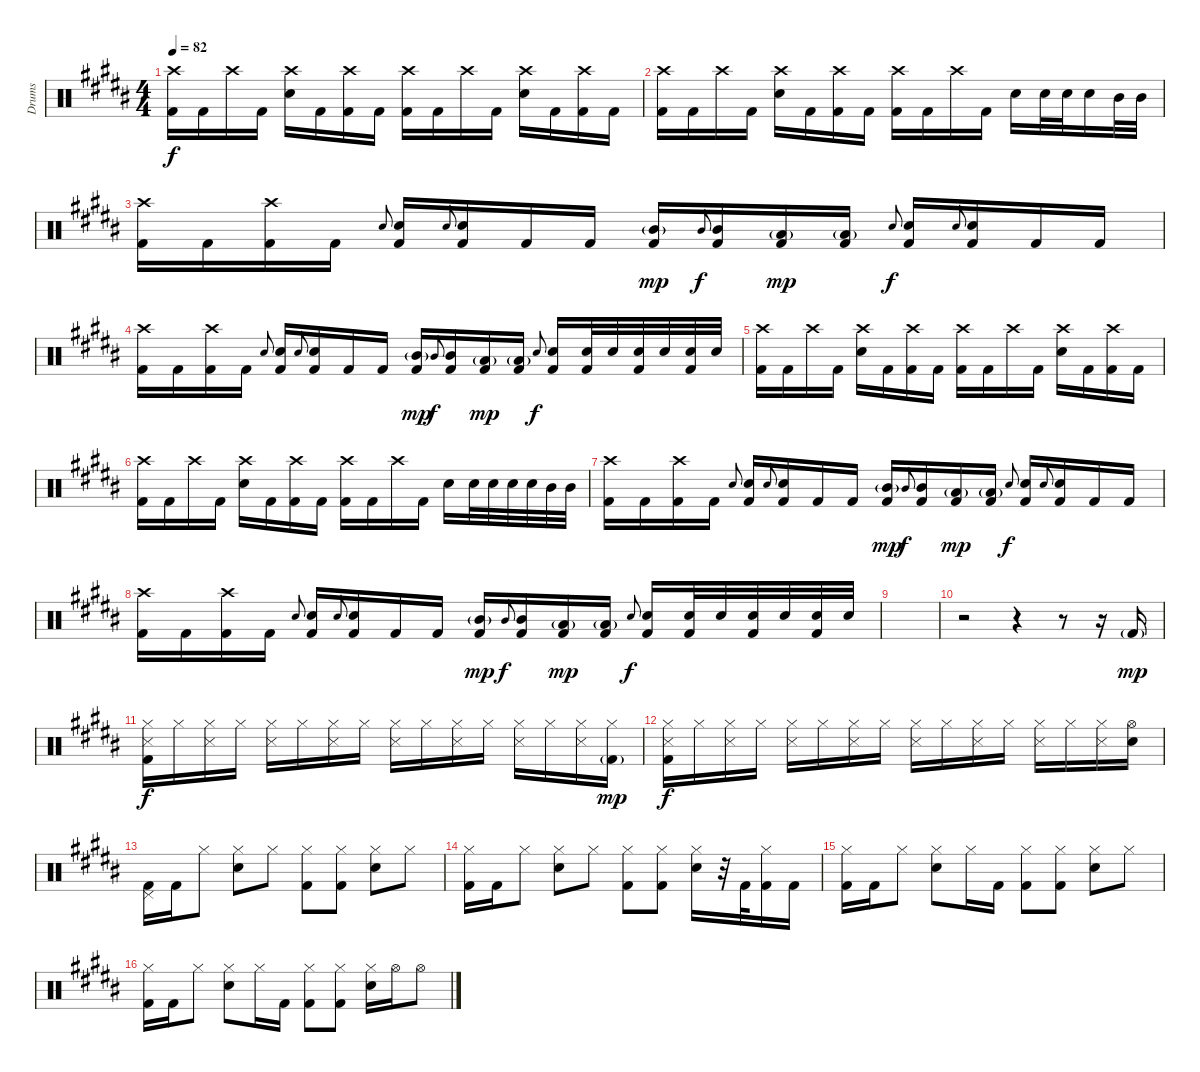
\track ("Drums" "Drums") {instrument percussion}
\staff {score}
\articulation defaults
\ts (4 4)
\tempo 82
\clef neutral
\ks b
("Crash high (hit)" "Kick (hit) 2").16{dy f} "Kick (hit) 2".16 "Crash high (hit)".16 "Kick (hit) 2".16 ("Crash high (hit)" "Electric Snare (hit)").16 "Kick (hit) 2".16 ("Crash high (hit)" "Kick (hit) 2").16 "Kick (hit) 2".16 ("Crash high (hit)" "Kick (hit) 2").16 "Kick (hit) 2".16 "Crash high (hit)".16 "Kick (hit) 2".16 ("Crash high (hit)" "Electric Snare (hit)").16 "Kick (hit) 2".16 ("Crash high (hit)" "Kick (hit) 2").16 "Kick (hit) 2".16 |
("Crash high (hit)" "Kick (hit) 2").16 "Kick (hit) 2".16 "Crash high (hit)".16 "Kick (hit) 2".16 ("Crash high (hit)" "Electric Snare (hit)").16 "Kick (hit) 2".16 ("Crash high (hit)" "Kick (hit) 2").16 "Kick (hit) 2".16 ("Crash high (hit)" "Kick (hit) 2").16 "Kick (hit) 2".16 "Crash high (hit)".16 "Kick (hit) 2".16 "Electric Snare (hit)".16 "Electric Snare (hit)".32 "Electric Snare (hit)".32 "Electric Snare (hit)".16 "Mid Tom (hit)".32 "Mid Tom (hit)".32 |
("Crash high (hit)" "Kick (hit) 2").16 "Kick (hit) 2".16 ("Crash high (hit)" "Kick (hit) 2").16 "Kick (hit) 2".16 "Electric Snare (hit)".8{gr onbeat} ("Electric Snare (hit)" "Kick (hit) 2").16 "Electric Snare (hit)".8{gr onbeat} ("Electric Snare (hit)" "Kick (hit) 2").16 "Kick (hit) 2".16 "Kick (hit) 2".16 ("Mid Tom (hit)"{g} "Kick (hit) 2").16{dy mp} "Mid Tom (hit)".8{gr onbeat dy f} ("Mid Tom (hit)" "Kick (hit) 2").16 ("Low Tom (hit)"{g} "Kick (hit) 2").16{dy mp} ("Low Tom (hit)"{g} "Kick (hit) 2").16 "Electric Snare (hit)".8{gr onbeat dy f} ("Electric Snare (hit)" "Kick (hit) 2").16 "Electric Snare (hit)".8{gr onbeat} ("Electric Snare (hit)" "Kick (hit) 2").16 "Kick (hit) 2".16 "Kick (hit) 2".16 |
("Crash high (hit)" "Kick (hit) 2").16 "Kick (hit) 2".16 ("Crash high (hit)" "Kick (hit) 2").16 "Kick (hit) 2".16 "Electric Snare (hit)".8{gr onbeat} ("Electric Snare (hit)" "Kick (hit) 2").16 "Electric Snare (hit)".8{gr onbeat} ("Electric Snare (hit)" "Kick (hit) 2").16 "Kick (hit) 2".16 "Kick (hit) 2".16 ("Mid Tom (hit)"{g} "Kick (hit) 2").16{dy mp} "Mid Tom (hit)".8{gr onbeat dy f} ("Mid Tom (hit)" "Kick (hit) 2").16 ("Low Tom (hit)"{g} "Kick (hit) 2").16{dy mp} ("Low Tom (hit)"{g} "Kick (hit) 2").16 "Electric Snare (hit)".8{gr onbeat dy f} ("Electric Snare (hit)" "Kick (hit) 2").16 ("Electric Snare (hit)" "Kick (hit) 2").32 "Electric Snare (hit)".32 ("Electric Snare (hit)" "Kick (hit) 2").32 "Electric Snare (hit)".32 ("Electric Snare (hit)" "Kick (hit) 2").32 "Electric Snare (hit)".32 |
("Crash high (hit)" "Kick (hit) 2").16 "Kick (hit) 2".16 "Crash high (hit)".16 "Kick (hit) 2".16 ("Crash high (hit)" "Electric Snare (hit)").16 "Kick (hit) 2".16 ("Crash high (hit)" "Kick (hit) 2").16 "Kick (hit) 2".16 ("Crash high (hit)" "Kick (hit) 2").16 "Kick (hit) 2".16 "Crash high (hit)".16 "Kick (hit) 2".16 ("Crash high (hit)" "Electric Snare (hit)").16 "Kick (hit) 2".16 ("Crash high (hit)" "Kick (hit) 2").16 "Kick (hit) 2".16 |
("Crash high (hit)" "Kick (hit) 2").16 "Kick (hit) 2".16 "Crash high (hit)".16 "Kick (hit) 2".16 ("Crash high (hit)" "Electric Snare (hit)").16 "Kick (hit) 2".16 ("Crash high (hit)" "Kick (hit) 2").16 "Kick (hit) 2".16 ("Crash high (hit)" "Kick (hit) 2").16 "Kick (hit) 2".16 "Crash high (hit)".16 "Kick (hit) 2".16 "Electric Snare (hit)".16 "Electric Snare (hit)".32 "Electric Snare (hit)".32 "Electric Snare (hit)".32 "Electric Snare (hit)".32 "Mid Tom (hit)".32 "Mid Tom (hit)".32 |
("Crash high (hit)" "Kick (hit) 2").16 "Kick (hit) 2".16 ("Crash high (hit)" "Kick (hit) 2").16 "Kick (hit) 2".16 "Electric Snare (hit)".8{gr onbeat} ("Electric Snare (hit)" "Kick (hit) 2").16 "Electric Snare (hit)".8{gr onbeat} ("Electric Snare (hit)" "Kick (hit) 2").16 "Kick (hit) 2".16 "Kick (hit) 2".16 ("Mid Tom (hit)"{g} "Kick (hit) 2").16{dy mp} "Mid Tom (hit)".8{gr onbeat dy f} ("Mid Tom (hit)" "Kick (hit) 2").16 ("Low Tom (hit)"{g} "Kick (hit) 2").16{dy mp} ("Low Tom (hit)"{g} "Kick (hit) 2").16 "Electric Snare (hit)".8{gr onbeat dy f} ("Electric Snare (hit)" "Kick (hit) 2").16 "Electric Snare (hit)".8{gr onbeat} ("Electric Snare (hit)" "Kick (hit) 2").16 "Kick (hit) 2".16 "Kick (hit) 2".16 |
("Crash high (hit)" "Kick (hit) 2").16 "Kick (hit) 2".16 ("Crash high (hit)" "Kick (hit) 2").16 "Kick (hit) 2".16 "Electric Snare (hit)".8{gr onbeat} ("Electric Snare (hit)" "Kick (hit) 2").16 "Electric Snare (hit)".8{gr onbeat} ("Electric Snare (hit)" "Kick (hit) 2").16 "Kick (hit) 2".16 "Kick (hit) 2".16 ("Mid Tom (hit)"{g} "Kick (hit) 2").16{dy mp} "Mid Tom (hit)".8{gr onbeat dy f} ("Mid Tom (hit)" "Kick (hit) 2").16 ("Low Tom (hit)"{g} "Kick (hit) 2").16{dy mp} ("Low Tom (hit)"{g} "Kick (hit) 2").16 "Electric Snare (hit)".8{gr onbeat dy f} ("Electric Snare (hit)" "Kick (hit) 2").16 ("Electric Snare (hit)" "Kick (hit) 2").32 "Electric Snare (hit)".32 ("Electric Snare (hit)" "Kick (hit) 2").32 "Electric Snare (hit)".32 ("Electric Snare (hit)" "Kick (hit) 2").32 "Electric Snare (hit)".32 |
|
r.2 r.4 r.8 r.16 "Kick (hit) 2"{g}.16{dy mp} |
("Hi-Hat (closed)" "Snare (side stick) 3" "Kick (hit) 2").16{dy f} "Hi-Hat (closed)".16 ("Hi-Hat (closed)" "Snare (side stick) 3").16 "Hi-Hat (closed)".16 ("Hi-Hat (closed)" "Snare (side stick) 3").16 "Hi-Hat (closed)".16 ("Hi-Hat (closed)" "Snare (side stick) 3").16 "Hi-Hat (closed)".16 ("Hi-Hat (closed)" "Snare (side stick) 3").16 "Hi-Hat (closed)".16 ("Hi-Hat (closed)" "Snare (side stick) 3").16 "Hi-Hat (closed)".16 ("Hi-Hat (closed)" "Snare (side stick) 3").16 "Hi-Hat (closed)".16 ("Hi-Hat (closed)" "Snare (side stick) 3").16 ("Hi-Hat (closed)" "Kick (hit) 2"{g}).16{dy mp} |
("Hi-Hat (closed)" "Snare (side stick) 3" "Kick (hit) 2").16{dy f} "Hi-Hat (closed)".16 ("Hi-Hat (closed)" "Snare (side stick) 3").16 "Hi-Hat (closed)".16 ("Hi-Hat (closed)" "Snare (side stick) 3").16 "Hi-Hat (closed)".16 ("Hi-Hat (closed)" "Snare (side stick) 3").16 "Hi-Hat (closed)".16 ("Hi-Hat (closed)" "Snare (side stick) 3").16 "Hi-Hat (closed)".16 ("Hi-Hat (closed)" "Snare (side stick) 3").16 "Hi-Hat (closed)".16 ("Hi-Hat (closed)" "Snare (side stick) 3").16 "Hi-Hat (closed)".16 ("Hi-Hat (closed)" "Snare (side stick) 3").16 ("Hi-Hat (open)" "Electric Snare (hit)").16 |
("Pedal Hi-Hat (hit)" "Kick (hit) 2").16 "Kick (hit) 2".16 "Hi-Hat (closed)".8 ("Hi-Hat (closed)" "Electric Snare (hit)").8 "Hi-Hat (closed)".8 ("Hi-Hat (closed)" "Kick (hit) 2").8 ("Hi-Hat (closed)" "Kick (hit) 2").8 ("Hi-Hat (closed)" "Electric Snare (hit)").8 "Hi-Hat (closed)".8 |
("Hi-Hat (closed)" "Kick (hit) 2").16 "Kick (hit) 2".16 "Hi-Hat (closed)".8 ("Hi-Hat (closed)" "Electric Snare (hit)").8 "Hi-Hat (closed)".8 ("Hi-Hat (closed)" "Kick (hit) 2").8 ("Hi-Hat (closed)" "Kick (hit) 2").8 ("Hi-Hat (closed)" "Electric Snare (hit)").16 r.32 "Kick (hit) 2".32 ("Hi-Hat (closed)" "Kick (hit) 2").16 "Kick (hit) 2".16 |
("Hi-Hat (closed)" "Kick (hit) 2").16 "Kick (hit) 2".16 "Hi-Hat (closed)".8 ("Hi-Hat (closed)" "Electric Snare (hit)").8 "Hi-Hat (closed)".16 "Kick (hit) 2".16 ("Hi-Hat (closed)" "Kick (hit) 2").8 ("Hi-Hat (closed)" "Kick (hit) 2").8 ("Hi-Hat (closed)" "Electric Snare (hit)").8 "Hi-Hat (closed)".8 |
("Hi-Hat (closed)" "Kick (hit) 2").16 "Kick (hit) 2".16 "Hi-Hat (closed)".8 ("Hi-Hat (closed)" "Electric Snare (hit)").8 "Hi-Hat (closed)".16 "Kick (hit) 2".16 ("Hi-Hat (closed)" "Kick (hit) 2").8 ("Hi-Hat (closed)" "Kick (hit) 2").8 ("Hi-Hat (closed)" "Electric Snare (hit)").16 "Hi-Hat (open)".16 "Hi-Hat (open)".8
